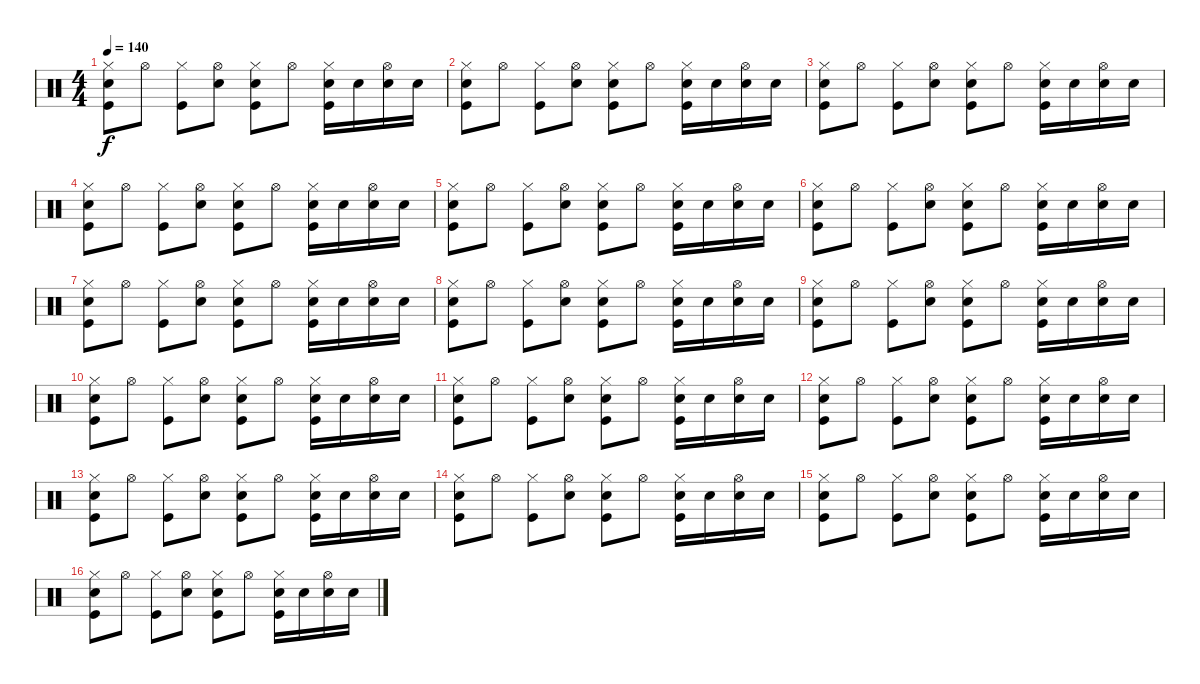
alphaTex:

\track "" {instrument percussion}
\staff {score}
\articulation defaults
\ts (4 4)
\tempo 140
\clef neutral
\ks c
("Snare (hit) 2" "Hi-Hat (closed)" "Kick (hit)").8{dy f} "Hi-Hat (open)".8 ("Hi-Hat (closed)" "Kick (hit)").8 ("Snare (hit) 2" "Hi-Hat (open)").8 ("Snare (hit) 2" "Hi-Hat (closed)" "Kick (hit)").8 "Hi-Hat (open)".8 ("Snare (hit) 2" "Hi-Hat (closed)" "Kick (hit)").16 "Snare (hit) 2".16 ("Snare (hit) 2" "Hi-Hat (open)").16 "Snare (hit) 2".16 |
("Snare (hit) 2" "Hi-Hat (closed)" "Kick (hit)").8 "Hi-Hat (open)".8 ("Hi-Hat (closed)" "Kick (hit)").8 ("Snare (hit) 2" "Hi-Hat (open)").8 ("Snare (hit) 2" "Hi-Hat (closed)" "Kick (hit)").8 "Hi-Hat (open)".8 ("Snare (hit) 2" "Hi-Hat (closed)" "Kick (hit)").16 "Snare (hit) 2".16 ("Snare (hit) 2" "Hi-Hat (open)").16 "Snare (hit) 2".16 |
("Snare (hit) 2" "Hi-Hat (closed)" "Kick (hit)").8 "Hi-Hat (open)".8 ("Hi-Hat (closed)" "Kick (hit)").8 ("Snare (hit) 2" "Hi-Hat (open)").8 ("Snare (hit) 2" "Hi-Hat (closed)" "Kick (hit)").8 "Hi-Hat (open)".8 ("Snare (hit) 2" "Hi-Hat (closed)" "Kick (hit)").16 "Snare (hit) 2".16 ("Snare (hit) 2" "Hi-Hat (open)").16 "Snare (hit) 2".16 |
("Snare (hit) 2" "Hi-Hat (closed)" "Kick (hit)").8 "Hi-Hat (open)".8 ("Hi-Hat (closed)" "Kick (hit)").8 ("Snare (hit) 2" "Hi-Hat (open)").8 ("Snare (hit) 2" "Hi-Hat (closed)" "Kick (hit)").8 "Hi-Hat (open)".8 ("Snare (hit) 2" "Hi-Hat (closed)" "Kick (hit)").16 "Snare (hit) 2".16 ("Snare (hit) 2" "Hi-Hat (open)").16 "Snare (hit) 2".16 |
("Snare (hit) 2" "Hi-Hat (closed)" "Kick (hit)").8 "Hi-Hat (open)".8 ("Hi-Hat (closed)" "Kick (hit)").8 ("Snare (hit) 2" "Hi-Hat (open)").8 ("Snare (hit) 2" "Hi-Hat (closed)" "Kick (hit)").8 "Hi-Hat (open)".8 ("Snare (hit) 2" "Hi-Hat (closed)" "Kick (hit)").16 "Snare (hit) 2".16 ("Snare (hit) 2" "Hi-Hat (open)").16 "Snare (hit) 2".16 |
("Snare (hit) 2" "Hi-Hat (closed)" "Kick (hit)").8 "Hi-Hat (open)".8 ("Hi-Hat (closed)" "Kick (hit)").8 ("Snare (hit) 2" "Hi-Hat (open)").8 ("Snare (hit) 2" "Hi-Hat (closed)" "Kick (hit)").8 "Hi-Hat (open)".8 ("Snare (hit) 2" "Hi-Hat (closed)" "Kick (hit)").16 "Snare (hit) 2".16 ("Snare (hit) 2" "Hi-Hat (open)").16 "Snare (hit) 2".16 |
("Snare (hit) 2" "Hi-Hat (closed)" "Kick (hit)").8 "Hi-Hat (open)".8 ("Hi-Hat (closed)" "Kick (hit)").8 ("Snare (hit) 2" "Hi-Hat (open)").8 ("Snare (hit) 2" "Hi-Hat (closed)" "Kick (hit)").8 "Hi-Hat (open)".8 ("Snare (hit) 2" "Hi-Hat (closed)" "Kick (hit)").16 "Snare (hit) 2".16 ("Snare (hit) 2" "Hi-Hat (open)").16 "Snare (hit) 2".16 |
("Snare (hit) 2" "Hi-Hat (closed)" "Kick (hit)").8 "Hi-Hat (open)".8 ("Hi-Hat (closed)" "Kick (hit)").8 ("Snare (hit) 2" "Hi-Hat (open)").8 ("Snare (hit) 2" "Hi-Hat (closed)" "Kick (hit)").8 "Hi-Hat (open)".8 ("Snare (hit) 2" "Hi-Hat (closed)" "Kick (hit)").16 "Snare (hit) 2".16 ("Snare (hit) 2" "Hi-Hat (open)").16 "Snare (hit) 2".16 |
("Snare (hit) 2" "Hi-Hat (closed)" "Kick (hit)").8 "Hi-Hat (open)".8 ("Hi-Hat (closed)" "Kick (hit)").8 ("Snare (hit) 2" "Hi-Hat (open)").8 ("Snare (hit) 2" "Hi-Hat (closed)" "Kick (hit)").8 "Hi-Hat (open)".8 ("Snare (hit) 2" "Hi-Hat (closed)" "Kick (hit)").16 "Snare (hit) 2".16 ("Snare (hit) 2" "Hi-Hat (open)").16 "Snare (hit) 2".16 |
("Snare (hit) 2" "Hi-Hat (closed)" "Kick (hit)").8 "Hi-Hat (open)".8 ("Hi-Hat (closed)" "Kick (hit)").8 ("Snare (hit) 2" "Hi-Hat (open)").8 ("Snare (hit) 2" "Hi-Hat (closed)" "Kick (hit)").8 "Hi-Hat (open)".8 ("Snare (hit) 2" "Hi-Hat (closed)" "Kick (hit)").16 "Snare (hit) 2".16 ("Snare (hit) 2" "Hi-Hat (open)").16 "Snare (hit) 2".16 |
("Snare (hit) 2" "Hi-Hat (closed)" "Kick (hit)").8 "Hi-Hat (open)".8 ("Hi-Hat (closed)" "Kick (hit)").8 ("Snare (hit) 2" "Hi-Hat (open)").8 ("Snare (hit) 2" "Hi-Hat (closed)" "Kick (hit)").8 "Hi-Hat (open)".8 ("Snare (hit) 2" "Hi-Hat (closed)" "Kick (hit)").16 "Snare (hit) 2".16 ("Snare (hit) 2" "Hi-Hat (open)").16 "Snare (hit) 2".16 |
("Snare (hit) 2" "Hi-Hat (closed)" "Kick (hit)").8 "Hi-Hat (open)".8 ("Hi-Hat (closed)" "Kick (hit)").8 ("Snare (hit) 2" "Hi-Hat (open)").8 ("Snare (hit) 2" "Hi-Hat (closed)" "Kick (hit)").8 "Hi-Hat (open)".8 ("Snare (hit) 2" "Hi-Hat (closed)" "Kick (hit)").16 "Snare (hit) 2".16 ("Snare (hit) 2" "Hi-Hat (open)").16 "Snare (hit) 2".16 |
("Snare (hit) 2" "Hi-Hat (closed)" "Kick (hit)").8 "Hi-Hat (open)".8 ("Hi-Hat (closed)" "Kick (hit)").8 ("Snare (hit) 2" "Hi-Hat (open)").8 ("Snare (hit) 2" "Hi-Hat (closed)" "Kick (hit)").8 "Hi-Hat (open)".8 ("Snare (hit) 2" "Hi-Hat (closed)" "Kick (hit)").16 "Snare (hit) 2".16 ("Snare (hit) 2" "Hi-Hat (open)").16 "Snare (hit) 2".16 |
("Snare (hit) 2" "Hi-Hat (closed)" "Kick (hit)").8 "Hi-Hat (open)".8 ("Hi-Hat (closed)" "Kick (hit)").8 ("Snare (hit) 2" "Hi-Hat (open)").8 ("Snare (hit) 2" "Hi-Hat (closed)" "Kick (hit)").8 "Hi-Hat (open)".8 ("Snare (hit) 2" "Hi-Hat (closed)" "Kick (hit)").16 "Snare (hit) 2".16 ("Snare (hit) 2" "Hi-Hat (open)").16 "Snare (hit) 2".16 |
("Snare (hit) 2" "Hi-Hat (closed)" "Kick (hit)").8 "Hi-Hat (open)".8 ("Hi-Hat (closed)" "Kick (hit)").8 ("Snare (hit) 2" "Hi-Hat (open)").8 ("Snare (hit) 2" "Hi-Hat (closed)" "Kick (hit)").8 "Hi-Hat (open)".8 ("Snare (hit) 2" "Hi-Hat (closed)" "Kick (hit)").16 "Snare (hit) 2".16 ("Snare (hit) 2" "Hi-Hat (open)").16 "Snare (hit) 2".16 |
("Snare (hit) 2" "Hi-Hat (closed)" "Kick (hit)").8 "Hi-Hat (open)".8 ("Hi-Hat (closed)" "Kick (hit)").8 ("Snare (hit) 2" "Hi-Hat (open)").8 ("Snare (hit) 2" "Hi-Hat (closed)" "Kick (hit)").8 "Hi-Hat (open)".8 ("Snare (hit) 2" "Hi-Hat (closed)" "Kick (hit)").16 "Snare (hit) 2".16 ("Snare (hit) 2" "Hi-Hat (open)").16 "Snare (hit) 2".16
